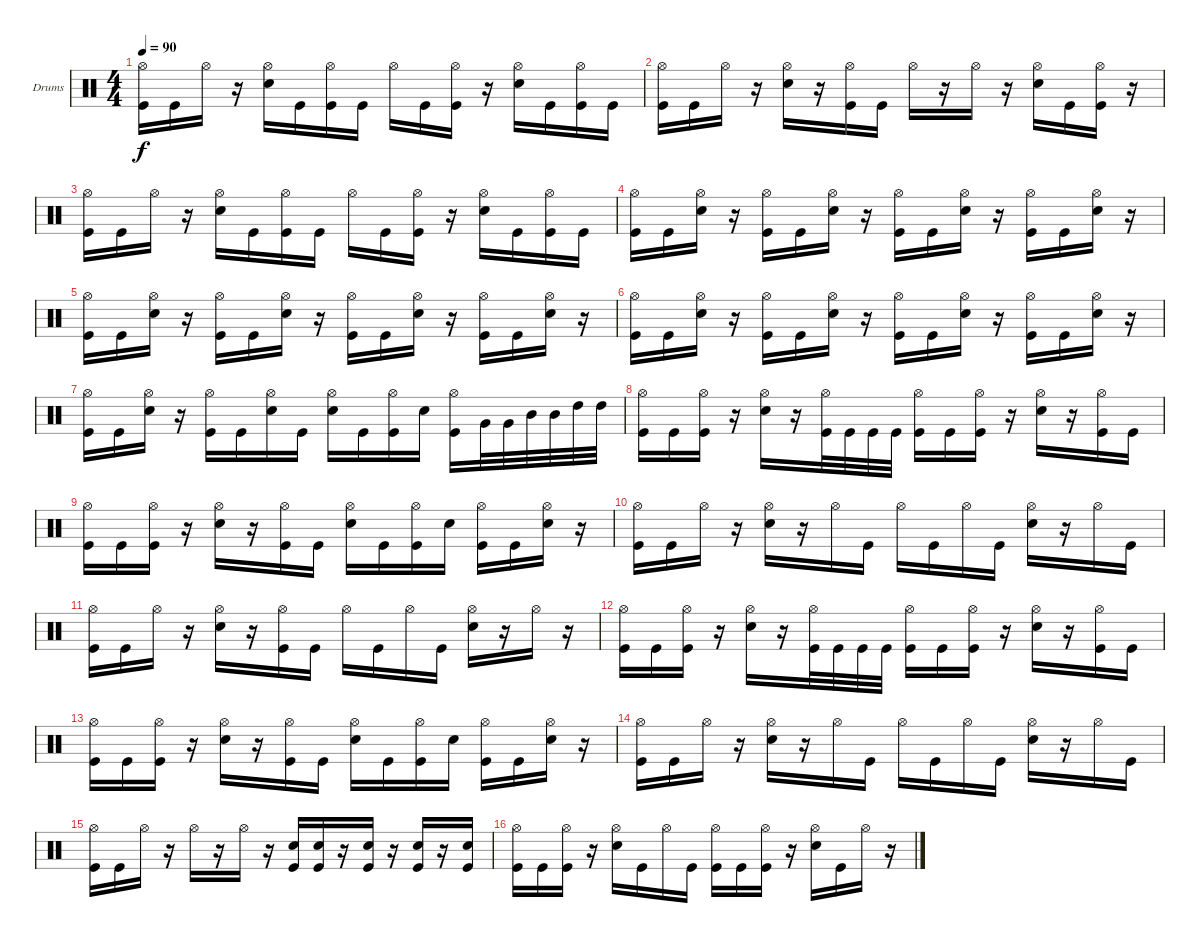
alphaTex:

\bracketExtendMode groupsimilarinstruments
\firstSystemTrackNameOrientation horizontal
\otherSystemsTrackNameOrientation horizontal
\track ("Drumkit" "Drums") {instrument percussion}
\staff {score}
\articulation defaults
\ts (4 4)
\tempo 90
\clef neutral
\ks c
("Hi-Hat (open)" "Kick (hit)").16{dy f} "Kick (hit)".16 "Hi-Hat (open)".16 r.16 ("Hi-Hat (open)" "Snare (hit) 2").16 "Kick (hit)".16 ("Hi-Hat (open)" "Kick (hit)").16 "Kick (hit)".16 "Hi-Hat (open)".16 "Kick (hit)".16 ("Hi-Hat (open)" "Kick (hit)").16 r.16 ("Hi-Hat (open)" "Snare (hit) 2").16 "Kick (hit)".16 ("Hi-Hat (open)" "Kick (hit)").16 "Kick (hit)".16 |
("Hi-Hat (open)" "Kick (hit)").16 "Kick (hit)".16 "Hi-Hat (open)".16 r.16 ("Hi-Hat (open)" "Snare (hit) 2").16 r.16 ("Hi-Hat (open)" "Kick (hit)").16 "Kick (hit)".16 "Hi-Hat (open)".16 r.16 "Hi-Hat (open)".16 r.16 ("Hi-Hat (open)" "Snare (hit) 2").16 "Kick (hit)".16 ("Hi-Hat (open)" "Kick (hit)").16 r.16 |
("Hi-Hat (open)" "Kick (hit)").16 "Kick (hit)".16 "Hi-Hat (open)".16 r.16 ("Hi-Hat (open)" "Snare (hit) 2").16 "Kick (hit)".16 ("Hi-Hat (open)" "Kick (hit)").16 "Kick (hit)".16 "Hi-Hat (open)".16 "Kick (hit)".16 ("Hi-Hat (open)" "Kick (hit)").16 r.16 ("Hi-Hat (open)" "Snare (hit) 2").16 "Kick (hit)".16 ("Hi-Hat (open)" "Kick (hit)").16 "Kick (hit)".16 |
("Hi-Hat (open)" "Kick (hit)").16 "Kick (hit)".16 ("Hi-Hat (open)" "Snare (hit) 2").16 r.16 ("Hi-Hat (open)" "Kick (hit)").16 "Kick (hit)".16 ("Hi-Hat (open)" "Snare (hit) 2").16 r.16 ("Hi-Hat (open)" "Kick (hit)").16 "Kick (hit)".16 ("Hi-Hat (open)" "Snare (hit) 2").16 r.16 ("Hi-Hat (open)" "Kick (hit)").16 "Kick (hit)".16 ("Hi-Hat (open)" "Snare (hit) 2").16 r.16 |
("Hi-Hat (open)" "Kick (hit)").16 "Kick (hit)".16 ("Hi-Hat (open)" "Snare (hit) 2").16 r.16 ("Hi-Hat (open)" "Kick (hit)").16 "Kick (hit)".16 ("Hi-Hat (open)" "Snare (hit) 2").16 r.16 ("Hi-Hat (open)" "Kick (hit)").16 "Kick (hit)".16 ("Hi-Hat (open)" "Snare (hit) 2").16 r.16 ("Hi-Hat (open)" "Kick (hit)").16 "Kick (hit)".16 ("Hi-Hat (open)" "Snare (hit) 2").16 r.16 |
("Hi-Hat (open)" "Kick (hit)").16 "Kick (hit)".16 ("Hi-Hat (open)" "Snare (hit) 2").16 r.16 ("Hi-Hat (open)" "Kick (hit)").16 "Kick (hit)".16 ("Hi-Hat (open)" "Snare (hit) 2").16 r.16 ("Hi-Hat (open)" "Kick (hit)").16 "Kick (hit)".16 ("Hi-Hat (open)" "Snare (hit) 2").16 r.16 ("Hi-Hat (open)" "Kick (hit)").16 "Kick (hit)".16 ("Hi-Hat (open)" "Snare (hit) 2").16 r.16 |
("Hi-Hat (open)" "Kick (hit)").16 "Kick (hit)".16 ("Hi-Hat (open)" "Snare (hit) 2").16 r.16 ("Hi-Hat (open)" "Kick (hit)").16 "Kick (hit)".16 ("Hi-Hat (open)" "Snare (hit) 2").16 "Kick (hit)".16 ("Hi-Hat (open)" "Snare (hit) 2").16 "Kick (hit)".16 ("Hi-Hat (open)" "Kick (hit)").16 "Snare (hit) 2".16 ("Hi-Hat (open)" "Kick (hit)").16 "Very Low Tom (hit)".32 "Very Low Tom (hit)".32 "Mid Tom (hit)".32 "Mid Tom (hit)".32 "High Tom (hit)".32 "High Tom (hit)".32 |
("Hi-Hat (open)" "Kick (hit)").16 "Kick (hit)".16 ("Hi-Hat (open)" "Kick (hit)").16 r.16 ("Hi-Hat (open)" "Snare (hit) 2").16 r.16 ("Hi-Hat (open)" "Kick (hit)").32 "Kick (hit)".32 "Kick (hit)".32 "Kick (hit)".32 ("Hi-Hat (open)" "Kick (hit)").16 "Kick (hit)".16 ("Hi-Hat (open)" "Kick (hit)").16 r.16 ("Hi-Hat (open)" "Snare (hit) 2").16 r.16 ("Hi-Hat (open)" "Kick (hit)").16 "Kick (hit)".16 |
("Hi-Hat (open)" "Kick (hit)").16 "Kick (hit)".16 ("Hi-Hat (open)" "Kick (hit)").16 r.16 ("Hi-Hat (open)" "Snare (hit) 2").16 r.16 ("Hi-Hat (open)" "Kick (hit)").16 "Kick (hit)".16 ("Hi-Hat (open)" "Snare (hit) 2").16 "Kick (hit)".16 ("Hi-Hat (open)" "Kick (hit)").16 "Snare (hit) 2".16 ("Hi-Hat (open)" "Kick (hit)").16 "Kick (hit)".16 ("Hi-Hat (open)" "Snare (hit) 2").16 r.16 |
("Hi-Hat (open)" "Kick (hit)").16 "Kick (hit)".16 "Hi-Hat (open)".16 r.16 ("Hi-Hat (open)" "Snare (hit) 2").16 r.16 "Hi-Hat (open)".16 "Kick (hit)".16 "Hi-Hat (open)".16 "Kick (hit)".16 "Hi-Hat (open)".16 "Kick (hit)".16 ("Hi-Hat (open)" "Snare (hit) 2").16 r.16 "Hi-Hat (open)".16 "Kick (hit)".16 |
("Hi-Hat (open)" "Kick (hit)").16 "Kick (hit)".16 "Hi-Hat (open)".16 r.16 ("Hi-Hat (open)" "Snare (hit) 2").16 r.16 ("Hi-Hat (open)" "Kick (hit)").16 "Kick (hit)".16 "Hi-Hat (open)".16 "Kick (hit)".16 "Hi-Hat (open)".16 "Kick (hit)".16 ("Hi-Hat (open)" "Snare (hit) 2").16 r.16 "Hi-Hat (open)".16 r.16 |
("Hi-Hat (open)" "Kick (hit)").16 "Kick (hit)".16 ("Hi-Hat (open)" "Kick (hit)").16 r.16 ("Hi-Hat (open)" "Snare (hit) 2").16 r.16 ("Hi-Hat (open)" "Kick (hit)").32 "Kick (hit)".32 "Kick (hit)".32 "Kick (hit)".32 ("Hi-Hat (open)" "Kick (hit)").16 "Kick (hit)".16 ("Hi-Hat (open)" "Kick (hit)").16 r.16 ("Hi-Hat (open)" "Snare (hit) 2").16 r.16 ("Hi-Hat (open)" "Kick (hit)").16 "Kick (hit)".16 |
("Hi-Hat (open)" "Kick (hit)").16 "Kick (hit)".16 ("Hi-Hat (open)" "Kick (hit)").16 r.16 ("Hi-Hat (open)" "Snare (hit) 2").16 r.16 ("Hi-Hat (open)" "Kick (hit)").16 "Kick (hit)".16 ("Hi-Hat (open)" "Snare (hit) 2").16 "Kick (hit)".16 ("Hi-Hat (open)" "Kick (hit)").16 "Snare (hit) 2".16 ("Hi-Hat (open)" "Kick (hit)").16 "Kick (hit)".16 ("Hi-Hat (open)" "Snare (hit) 2").16 r.16 |
("Hi-Hat (open)" "Kick (hit)").16 "Kick (hit)".16 "Hi-Hat (open)".16 r.16 ("Hi-Hat (open)" "Snare (hit) 2").16 r.16 "Hi-Hat (open)".16 "Kick (hit)".16 "Hi-Hat (open)".16 "Kick (hit)".16 "Hi-Hat (open)".16 "Kick (hit)".16 ("Hi-Hat (open)" "Snare (hit) 2").16 r.16 "Hi-Hat (open)".16 "Kick (hit)".16 |
("Hi-Hat (open)" "Kick (hit)").16 "Kick (hit)".16 "Hi-Hat (open)".16 r.16 "Hi-Hat (open)".16 r.16 "Hi-Hat (open)".16 r.16 ("Snare (hit) 2" "Kick (hit)").16 ("Snare (hit) 2" "Kick (hit)").16 r.16 ("Snare (hit) 2" "Kick (hit)").16 r.16 ("Snare (hit) 2" "Kick (hit)").16 r.16 ("Snare (hit) 2" "Kick (hit)").16 |
("Hi-Hat (open)" "Kick (hit)").16 "Kick (hit)".16 ("Hi-Hat (open)" "Kick (hit)").16 r.16 ("Hi-Hat (open)" "Snare (hit) 2").16 "Kick (hit)".16 "Hi-Hat (open)".16 "Kick (hit)".16 ("Hi-Hat (open)" "Kick (hit)").16 "Kick (hit)".16 ("Hi-Hat (open)" "Kick (hit)").16 r.16 ("Hi-Hat (open)" "Snare (hit) 2").16 "Kick (hit)".16 "Hi-Hat (open)".16 r.16
